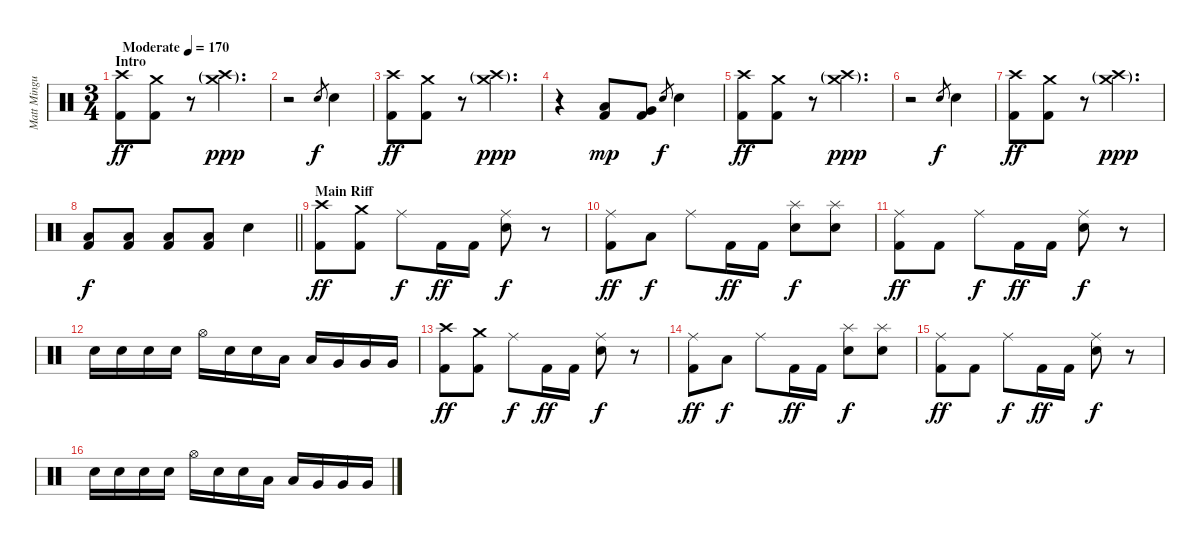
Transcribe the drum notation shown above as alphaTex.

\track ("Matt Mingus (Drum Kit)" "Matt Mingu") {instrument percussion}
\staff {score}
\articulation defaults
\ts (3 4)
\section ("" "Intro")
\tempo (170 "Moderate")
\clef neutral
\ks c
("Crash high (hit)" "Kick (hit) 2").8{dy ff} ("Crash medium (hit)" "Kick (hit) 2").8 r.8 ("Crash high (hit)"{g} "Crash medium (hit)"{g}).4{d dy ppp} |
r.2 "Electric Snare (hit)".8{gr dy f} "Electric Snare (hit)".4 |
("Crash high (hit)" "Kick (hit) 2").8{dy ff} ("Crash medium (hit)" "Kick (hit) 2").8 r.8 ("Crash high (hit)"{g} "Crash medium (hit)"{g}).4{d dy ppp} |
r.4 ("Low Tom (hit)" "Kick (hit) 2").8{dy mp} ("Very Low Tom (hit)" "Kick (hit) 2").8 "Electric Snare (hit)".8{gr dy f} "Electric Snare (hit)".4 |
("Crash high (hit)" "Kick (hit) 2").8{dy ff} ("Crash medium (hit)" "Kick (hit) 2").8 r.8 ("Crash high (hit)"{g} "Crash medium (hit)"{g}).4{d dy ppp} |
r.2 "Electric Snare (hit)".8{gr dy f} "Electric Snare (hit)".4 |
("Crash high (hit)" "Kick (hit) 2").8{dy ff} ("Crash medium (hit)" "Kick (hit) 2").8 r.8 ("Crash high (hit)"{g} "Crash medium (hit)"{g}).4{d dy ppp} |
\barLineRight lightlight
("Low Tom (hit)" "Kick (hit) 2").8{dy f} ("Low Tom (hit)" "Kick (hit) 2").8 ("Low Tom (hit)" "Kick (hit) 2").8 ("Low Tom (hit)" "Kick (hit) 2").8 "Electric Snare (hit)".4 |
\section ("" "Main Riff")
("Crash high (hit)" "Kick (hit) 2").8{dy ff} ("Crash medium (hit)" "Kick (hit) 2").8 "Ride (middle)".8{dy f} "Kick (hit) 2".16{dy ff} "Kick (hit) 2".16 ("Ride (middle)" "Electric Snare (hit)").8{dy f} r.8 |
("Ride (middle)" "Kick (hit) 2").8{dy ff} "Low Tom (hit)".8{dy f} "Ride (middle)".8 "Kick (hit) 2".16{dy ff} "Kick (hit) 2".16 ("Splash (hit)" "Electric Snare (hit)").8{dy f} ("Splash (hit)" "Electric Snare (hit)").8 |
("Ride (middle)" "Kick (hit) 2").8{dy ff} "Kick (hit) 2".8 "Ride (middle)".8{dy f} "Kick (hit) 2".16{dy ff} "Kick (hit) 2".16 ("Ride (middle)" "Electric Snare (hit)").8{dy f} r.8 |
"Electric Snare (hit)".16 "Electric Snare (hit)".16 "Electric Snare (hit)".16 "Electric Snare (hit)".16 "Hi-Hat (open)".16 "Electric Snare (hit)".16 "Electric Snare (hit)".16 "Low Tom (hit)".16 "Low Tom (hit)".16 "Very Low Tom (hit)".16 "Very Low Tom (hit)".16 "Very Low Tom (hit)".16 |
("Crash high (hit)" "Kick (hit) 2").8{dy ff} ("Crash medium (hit)" "Kick (hit) 2").8 "Ride (middle)".8{dy f} "Kick (hit) 2".16{dy ff} "Kick (hit) 2".16 ("Ride (middle)" "Electric Snare (hit)").8{dy f} r.8 |
("Ride (middle)" "Kick (hit) 2").8{dy ff} "Low Tom (hit)".8{dy f} "Ride (middle)".8 "Kick (hit) 2".16{dy ff} "Kick (hit) 2".16 ("Splash (hit)" "Electric Snare (hit)").8{dy f} ("Splash (hit)" "Electric Snare (hit)").8 |
("Ride (middle)" "Kick (hit) 2").8{dy ff} "Kick (hit) 2".8 "Ride (middle)".8{dy f} "Kick (hit) 2".16{dy ff} "Kick (hit) 2".16 ("Ride (middle)" "Electric Snare (hit)").8{dy f} r.8 |
"Electric Snare (hit)".16 "Electric Snare (hit)".16 "Electric Snare (hit)".16 "Electric Snare (hit)".16 "Hi-Hat (open)".16 "Electric Snare (hit)".16 "Electric Snare (hit)".16 "Low Tom (hit)".16 "Low Tom (hit)".16 "Very Low Tom (hit)".16 "Very Low Tom (hit)".16 "Very Low Tom (hit)".16
